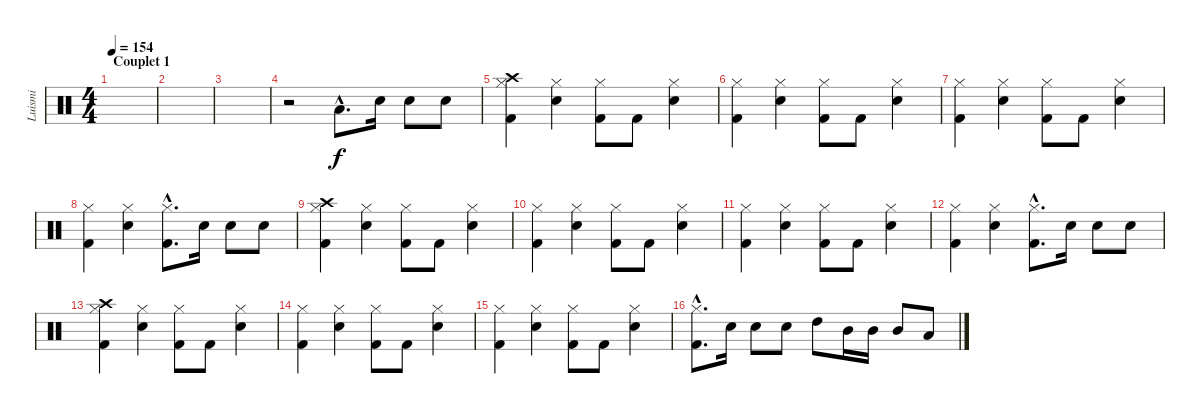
\track ("Luismi" "Luismi") {instrument percussion}
\staff {score}
\articulation defaults
\ts (4 4)
\section ("" "Couplet 1")
\tempo 154
\clef neutral
\ks c
|
|
|
r.2 "Low Tom (hit)"{hac}.8{d} "Snare (hit) 2".16 "Snare (hit) 2".8 "Snare (hit) 2".8 |
("Kick (hit) 2" "Hi-Hat (closed)" "Crash high (hit)").4 ("Snare (hit) 2" "Hi-Hat (closed)").4 ("Kick (hit) 2" "Hi-Hat (closed)").8 "Kick (hit) 2".8 ("Snare (hit) 2" "Hi-Hat (closed)").4 |
("Kick (hit) 2" "Hi-Hat (closed)").4 ("Snare (hit) 2" "Hi-Hat (closed)").4 ("Kick (hit) 2" "Hi-Hat (closed)").8 "Kick (hit) 2".8 ("Snare (hit) 2" "Hi-Hat (closed)").4 |
("Kick (hit) 2" "Hi-Hat (closed)").4 ("Snare (hit) 2" "Hi-Hat (closed)").4 ("Kick (hit) 2" "Hi-Hat (closed)").8 "Kick (hit) 2".8 ("Snare (hit) 2" "Hi-Hat (closed)").4 |
("Kick (hit) 2" "Hi-Hat (closed)").4 ("Snare (hit) 2" "Hi-Hat (closed)").4 ("Kick (hit) 2"{hac} "Hi-Hat (closed)"{hac}).8{d} "Snare (hit) 2".16 "Snare (hit) 2".8 "Snare (hit) 2".8 |
("Kick (hit) 2" "Hi-Hat (closed)" "Crash high (hit)").4 ("Snare (hit) 2" "Hi-Hat (closed)").4 ("Kick (hit) 2" "Hi-Hat (closed)").8 "Kick (hit) 2".8 ("Snare (hit) 2" "Hi-Hat (closed)").4 |
("Kick (hit) 2" "Hi-Hat (closed)").4 ("Snare (hit) 2" "Hi-Hat (closed)").4 ("Kick (hit) 2" "Hi-Hat (closed)").8 "Kick (hit) 2".8 ("Snare (hit) 2" "Hi-Hat (closed)").4 |
("Kick (hit) 2" "Hi-Hat (closed)").4 ("Snare (hit) 2" "Hi-Hat (closed)").4 ("Kick (hit) 2" "Hi-Hat (closed)").8 "Kick (hit) 2".8 ("Snare (hit) 2" "Hi-Hat (closed)").4 |
("Kick (hit) 2" "Hi-Hat (closed)").4 ("Snare (hit) 2" "Hi-Hat (closed)").4 ("Kick (hit) 2"{hac} "Hi-Hat (closed)"{hac}).8{d} "Snare (hit) 2".16 "Snare (hit) 2".8 "Snare (hit) 2".8 |
("Kick (hit) 2" "Hi-Hat (closed)" "Crash high (hit)").4 ("Snare (hit) 2" "Hi-Hat (closed)").4 ("Kick (hit) 2" "Hi-Hat (closed)").8 "Kick (hit) 2".8 ("Snare (hit) 2" "Hi-Hat (closed)").4 |
("Kick (hit) 2" "Hi-Hat (closed)").4 ("Snare (hit) 2" "Hi-Hat (closed)").4 ("Kick (hit) 2" "Hi-Hat (closed)").8 "Kick (hit) 2".8 ("Snare (hit) 2" "Hi-Hat (closed)").4 |
("Kick (hit) 2" "Hi-Hat (closed)").4 ("Snare (hit) 2" "Hi-Hat (closed)").4 ("Kick (hit) 2" "Hi-Hat (closed)").8 "Kick (hit) 2".8 ("Snare (hit) 2" "Hi-Hat (closed)").4 |
("Kick (hit) 2"{hac} "Hi-Hat (closed)"{hac}).8{d} "Snare (hit) 2".16 "Snare (hit) 2".8 "Snare (hit) 2".8 "High Tom (hit)".8 "Mid Tom (hit)".16 "Mid Tom (hit)".16 "Mid Tom (hit)".8 "Low Tom (hit)".8
